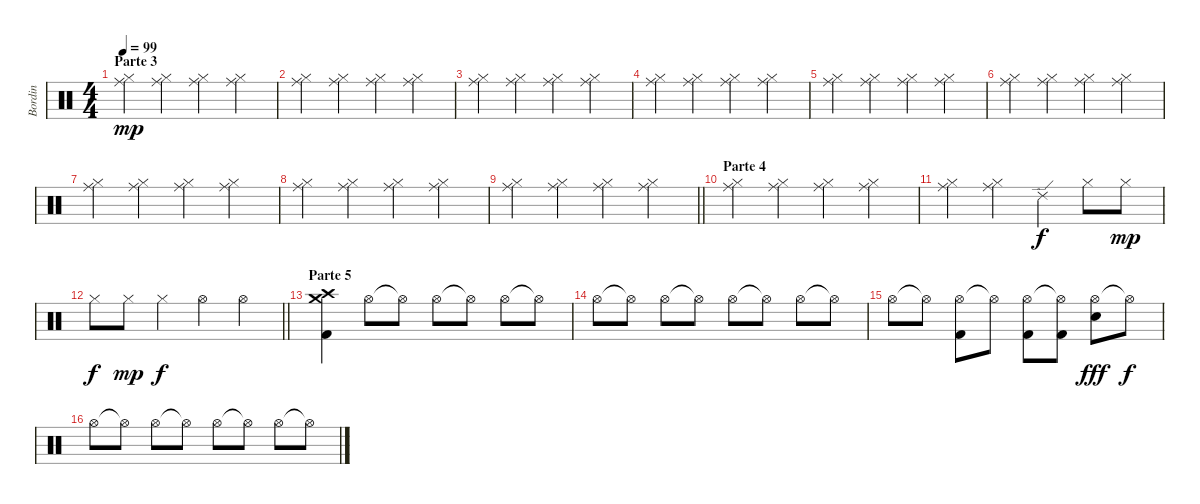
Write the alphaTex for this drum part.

\track ("Bordin" "Bordin") {instrument percussion}
\staff {score}
\articulation defaults
\ts (4 4)
\section ("" "Parte 3")
\tempo 99
\clef neutral
\ks c
("Ride (middle)" "Hi-Hat (closed)").4{dy mp} ("Ride (middle)" "Hi-Hat (closed)").4 ("Ride (middle)" "Hi-Hat (closed)").4 ("Ride (middle)" "Hi-Hat (closed)").4 |
("Ride (middle)" "Hi-Hat (closed)").4 ("Ride (middle)" "Hi-Hat (closed)").4 ("Ride (middle)" "Hi-Hat (closed)").4 ("Ride (middle)" "Hi-Hat (closed)").4 |
("Ride (middle)" "Hi-Hat (closed)").4 ("Ride (middle)" "Hi-Hat (closed)").4 ("Ride (middle)" "Hi-Hat (closed)").4 ("Ride (middle)" "Hi-Hat (closed)").4 |
("Ride (middle)" "Hi-Hat (closed)").4 ("Ride (middle)" "Hi-Hat (closed)").4 ("Ride (middle)" "Hi-Hat (closed)").4 ("Ride (middle)" "Hi-Hat (closed)").4 |
("Ride (middle)" "Hi-Hat (closed)").4 ("Ride (middle)" "Hi-Hat (closed)").4 ("Ride (middle)" "Hi-Hat (closed)").4 ("Ride (middle)" "Hi-Hat (closed)").4 |
("Ride (middle)" "Hi-Hat (closed)").4 ("Ride (middle)" "Hi-Hat (closed)").4 ("Ride (middle)" "Hi-Hat (closed)").4 ("Ride (middle)" "Hi-Hat (closed)").4 |
("Ride (middle)" "Hi-Hat (closed)").4 ("Ride (middle)" "Hi-Hat (closed)").4 ("Ride (middle)" "Hi-Hat (closed)").4 ("Ride (middle)" "Hi-Hat (closed)").4 |
("Ride (middle)" "Hi-Hat (closed)").4 ("Ride (middle)" "Hi-Hat (closed)").4 ("Ride (middle)" "Hi-Hat (closed)").4 ("Ride (middle)" "Hi-Hat (closed)").4 |
\barLineRight lightlight
("Ride (middle)" "Hi-Hat (closed)").4 ("Ride (middle)" "Hi-Hat (closed)").4 ("Ride (middle)" "Hi-Hat (closed)").4 ("Ride (middle)" "Hi-Hat (closed)").4 |
\section ("" "Parte 4")
("Ride (middle)" "Hi-Hat (closed)").4 ("Ride (middle)" "Hi-Hat (closed)").4 ("Ride (middle)" "Hi-Hat (closed)").4 ("Ride (middle)" "Hi-Hat (closed)").4 |
("Ride (middle)" "Hi-Hat (closed)").4 ("Ride (middle)" "Hi-Hat (closed)").4 "Ride (edge) 2".4{dy f} "Hi-Hat (closed)".8 "Hi-Hat (closed)".8{dy mp} |
\barLineRight lightlight "Hi-Hat (closed)".8{dy f} "Hi-Hat (closed)".8{dy mp} "Hi-Hat (closed)".4{dy f} "Hi-Hat (open)".4 "Hi-Hat (open)".4
|
\section ("" "Parte 5")
("Crash medium (hit)" "Crash high (hit)" "Kick (hit) 2").4 "Hi-Hat (open)".8 "Hi-Hat (open)"{t}.8 "Hi-Hat (open)".8 "Hi-Hat (open)"{t}.8 "Hi-Hat (open)".8 "Hi-Hat (open)"{t}.8 |
"Hi-Hat (open)".8 "Hi-Hat (open)"{t}.8 "Hi-Hat (open)".8 "Hi-Hat (open)"{t}.8 "Hi-Hat (open)".8 "Hi-Hat (open)"{t}.8 "Hi-Hat (open)".8 "Hi-Hat (open)"{t}.8 |
"Hi-Hat (open)".8 "Hi-Hat (open)"{t}.8 ("Hi-Hat (open)" "Kick (hit) 2").8 "Hi-Hat (open)"{t}.8 ("Hi-Hat (open)" "Kick (hit) 2").8 ("Hi-Hat (open)"{t} "Kick (hit) 2").8 ("Hi-Hat (open)" "Electric Snare (hit)").8{dy fff} "Hi-Hat (open)"{t}.8{dy f} |
"Hi-Hat (open)".8 "Hi-Hat (open)"{t}.8 "Hi-Hat (open)".8 "Hi-Hat (open)"{t}.8 "Hi-Hat (open)".8 "Hi-Hat (open)"{t}.8 "Hi-Hat (open)".8 "Hi-Hat (open)"{t}.8
